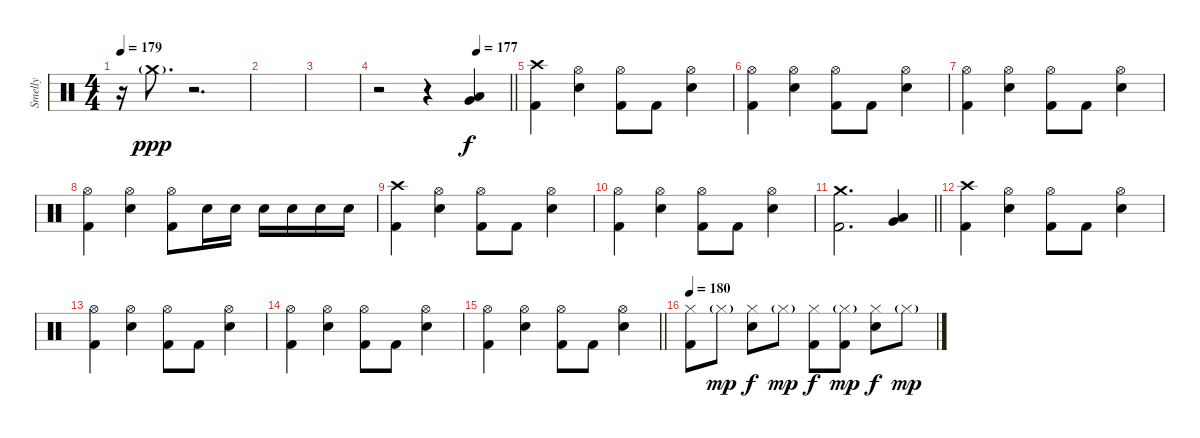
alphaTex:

\track ("Smelly" "Smelly") {instrument percussion}
\staff {score}
\articulation defaults
\ts (4 4)
\tempo 179
\clef neutral
\ks c
r.16{dy f} "Crash medium (hit)"{g}.8{d dy ppp} r.2{d} |
|
|
\tempo (177 0.75)
\barLineRight lightlight
r.2 r.4 ("Very Low Tom (hit)" "Low Floor Tom (hit)").4{dy f} |
\section ("" "")
("Crash high (hit)" "Kick (hit) 2").4 ("Hi-Hat (open)" "Electric Snare (hit)").4 ("Hi-Hat (open)" "Kick (hit) 2").8 "Kick (hit) 2".8 ("Hi-Hat (open)" "Electric Snare (hit)").4 |
("Hi-Hat (open)" "Kick (hit) 2").4 ("Hi-Hat (open)" "Electric Snare (hit)").4 ("Hi-Hat (open)" "Kick (hit) 2").8 "Kick (hit) 2".8 ("Hi-Hat (open)" "Electric Snare (hit)").4 |
("Hi-Hat (open)" "Kick (hit) 2").4 ("Hi-Hat (open)" "Electric Snare (hit)").4 ("Hi-Hat (open)" "Kick (hit) 2").8 "Kick (hit) 2".8 ("Hi-Hat (open)" "Electric Snare (hit)").4 |
("Hi-Hat (open)" "Kick (hit) 2").4 ("Hi-Hat (open)" "Electric Snare (hit)").4 ("Hi-Hat (open)" "Kick (hit) 2").8 "Electric Snare (hit)".16 "Electric Snare (hit)".16 "Electric Snare (hit)".16 "Electric Snare (hit)".16 "Electric Snare (hit)".16 "Electric Snare (hit)".16 |
("Crash high (hit)" "Kick (hit) 2").4 ("Hi-Hat (open)" "Electric Snare (hit)").4 ("Hi-Hat (open)" "Kick (hit) 2").8 "Kick (hit) 2".8 ("Hi-Hat (open)" "Electric Snare (hit)").4 |
("Hi-Hat (open)" "Kick (hit) 2").4 ("Hi-Hat (open)" "Electric Snare (hit)").4 ("Hi-Hat (open)" "Kick (hit) 2").8 "Kick (hit) 2".8 ("Hi-Hat (open)" "Electric Snare (hit)").4 |
\barLineRight lightlight
("Crash medium (hit)" "Kick (hit) 2").2{d} ("Very Low Tom (hit)" "Low Floor Tom (hit)").4 |
\section ("" "")
("Crash high (hit)" "Kick (hit) 2").4 ("Hi-Hat (open)" "Electric Snare (hit)").4 ("Hi-Hat (open)" "Kick (hit) 2").8 "Kick (hit) 2".8 ("Hi-Hat (open)" "Electric Snare (hit)").4 |
("Hi-Hat (open)" "Kick (hit) 2").4 ("Hi-Hat (open)" "Electric Snare (hit)").4 ("Hi-Hat (open)" "Kick (hit) 2").8 "Kick (hit) 2".8 ("Hi-Hat (open)" "Electric Snare (hit)").4 |
("Hi-Hat (open)" "Kick (hit) 2").4 ("Hi-Hat (open)" "Electric Snare (hit)").4 ("Hi-Hat (open)" "Kick (hit) 2").8 "Kick (hit) 2".8 ("Hi-Hat (open)" "Electric Snare (hit)").4 |
\barLineRight lightlight
("Hi-Hat (open)" "Kick (hit) 2").4 ("Hi-Hat (open)" "Electric Snare (hit)").4 ("Hi-Hat (open)" "Kick (hit) 2").8 "Kick (hit) 2".8 ("Hi-Hat (open)" "Electric Snare (hit)").4 |
\section ("" "")
\tempo 180
("Hi-Hat (closed)" "Kick (hit) 2").8 "Hi-Hat (closed)"{g}.8{dy mp} ("Hi-Hat (closed)" "Electric Snare (hit)").8{dy f} "Hi-Hat (closed)"{g}.8{dy mp} ("Hi-Hat (closed)" "Kick (hit) 2").8{dy f} ("Hi-Hat (closed)"{g} "Kick (hit) 2").8{dy mp} ("Hi-Hat (closed)" "Electric Snare (hit)").8{dy f} "Hi-Hat (closed)"{g}.8{dy mp}
